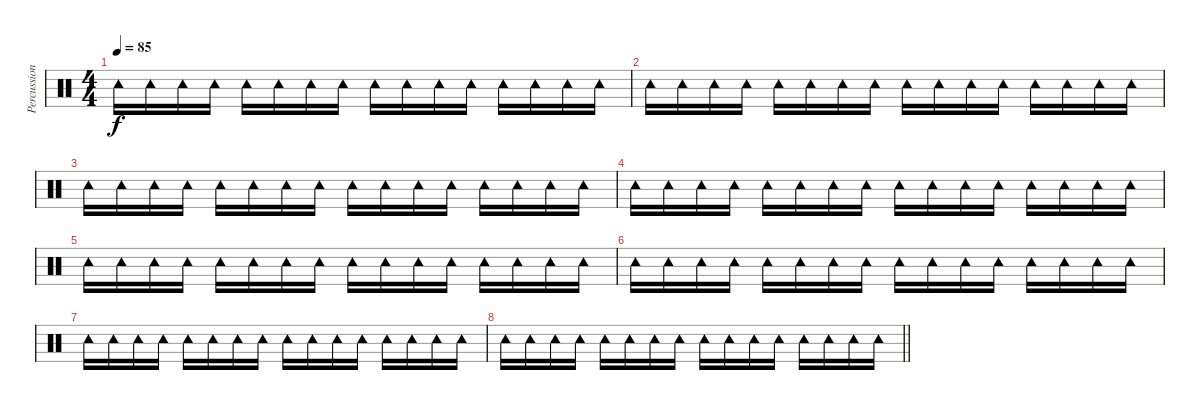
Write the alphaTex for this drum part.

\track ("Percussion" "Percussion") {instrument percussion}
\staff {score}
\articulation defaults
\ts (4 4)
\tempo 85
\clef neutral
\ks c "Tambourine (hit)".16{dy f} "Tambourine (hit)".16 "Tambourine (hit)".16 "Tambourine (hit)".16 "Tambourine (hit)".16 "Tambourine (hit)".16 "Tambourine (hit)".16 "Tambourine (hit)".16 "Tambourine (hit)".16 "Tambourine (hit)".16 "Tambourine (hit)".16 "Tambourine (hit)".16 "Tambourine (hit)".16 "Tambourine (hit)".16 "Tambourine (hit)".16 "Tambourine (hit)".16
|
"Tambourine (hit)".16 "Tambourine (hit)".16 "Tambourine (hit)".16 "Tambourine (hit)".16 "Tambourine (hit)".16 "Tambourine (hit)".16 "Tambourine (hit)".16 "Tambourine (hit)".16 "Tambourine (hit)".16 "Tambourine (hit)".16 "Tambourine (hit)".16 "Tambourine (hit)".16 "Tambourine (hit)".16 "Tambourine (hit)".16 "Tambourine (hit)".16 "Tambourine (hit)".16 |
"Tambourine (hit)".16 "Tambourine (hit)".16 "Tambourine (hit)".16 "Tambourine (hit)".16 "Tambourine (hit)".16 "Tambourine (hit)".16 "Tambourine (hit)".16 "Tambourine (hit)".16 "Tambourine (hit)".16 "Tambourine (hit)".16 "Tambourine (hit)".16 "Tambourine (hit)".16 "Tambourine (hit)".16 "Tambourine (hit)".16 "Tambourine (hit)".16 "Tambourine (hit)".16 |
"Tambourine (hit)".16 "Tambourine (hit)".16 "Tambourine (hit)".16 "Tambourine (hit)".16 "Tambourine (hit)".16 "Tambourine (hit)".16 "Tambourine (hit)".16 "Tambourine (hit)".16 "Tambourine (hit)".16 "Tambourine (hit)".16 "Tambourine (hit)".16 "Tambourine (hit)".16 "Tambourine (hit)".16 "Tambourine (hit)".16 "Tambourine (hit)".16 "Tambourine (hit)".16 |
"Tambourine (hit)".16 "Tambourine (hit)".16 "Tambourine (hit)".16 "Tambourine (hit)".16 "Tambourine (hit)".16 "Tambourine (hit)".16 "Tambourine (hit)".16 "Tambourine (hit)".16 "Tambourine (hit)".16 "Tambourine (hit)".16 "Tambourine (hit)".16 "Tambourine (hit)".16 "Tambourine (hit)".16 "Tambourine (hit)".16 "Tambourine (hit)".16 "Tambourine (hit)".16 |
"Tambourine (hit)".16 "Tambourine (hit)".16 "Tambourine (hit)".16 "Tambourine (hit)".16 "Tambourine (hit)".16 "Tambourine (hit)".16 "Tambourine (hit)".16 "Tambourine (hit)".16 "Tambourine (hit)".16 "Tambourine (hit)".16 "Tambourine (hit)".16 "Tambourine (hit)".16 "Tambourine (hit)".16 "Tambourine (hit)".16 "Tambourine (hit)".16 "Tambourine (hit)".16 |
"Tambourine (hit)".16 "Tambourine (hit)".16 "Tambourine (hit)".16 "Tambourine (hit)".16 "Tambourine (hit)".16 "Tambourine (hit)".16 "Tambourine (hit)".16 "Tambourine (hit)".16 "Tambourine (hit)".16 "Tambourine (hit)".16 "Tambourine (hit)".16 "Tambourine (hit)".16 "Tambourine (hit)".16 "Tambourine (hit)".16 "Tambourine (hit)".16 "Tambourine (hit)".16 |
\barLineRight lightlight "Tambourine (hit)".16 "Tambourine (hit)".16 "Tambourine (hit)".16 "Tambourine (hit)".16 "Tambourine (hit)".16 "Tambourine (hit)".16 "Tambourine (hit)".16 "Tambourine (hit)".16 "Tambourine (hit)".16 "Tambourine (hit)".16 "Tambourine (hit)".16 "Tambourine (hit)".16 "Tambourine (hit)".16 "Tambourine (hit)".16 "Tambourine (hit)".16 "Tambourine (hit)".16
